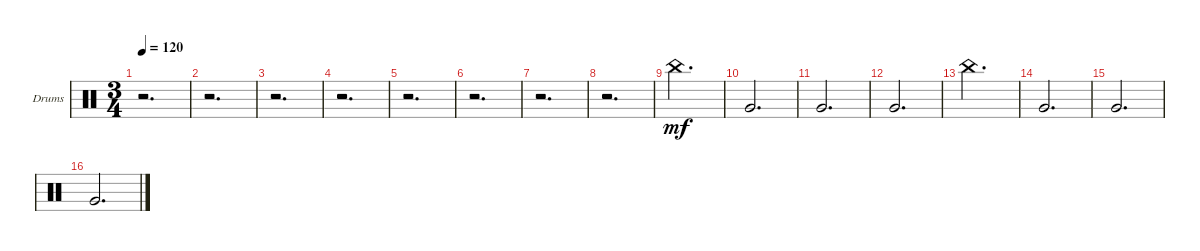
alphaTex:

\defaultSystemsLayout 4
\bracketExtendMode groupsimilarinstruments
\firstSystemTrackNameOrientation horizontal
\otherSystemsTrackNameOrientation horizontal
\track ("Drumkit" "Drums") {instrument percussion}
\staff {score}
\articulation defaults
\ts (3 4)
\tempo 120
\clef neutral
\scale
0.472222
\ks c
r.2{d dy mf} |
\scale
0.263889 r.2{d} |
\scale
0.263889 r.2{d} |
\scale
0.333333 r.2{d} |
\scale
0.333333 r.2{d} |
\scale
0.333333 r.2{d} |
\scale
0.333333 r.2{d} |
\scale
0.333333 r.2{d} |
\scale
0.333333 "China (hit)".2{d} |
"Very Low Tom (hit)".2{d} |
"Very Low Tom (hit)".2{d} |
"Very Low Tom (hit)".2{d} |
"China (hit)".2{d} |
"Very Low Tom (hit)".2{d} |
"Very Low Tom (hit)".2{d} |
"Very Low Tom (hit)".2{d}
